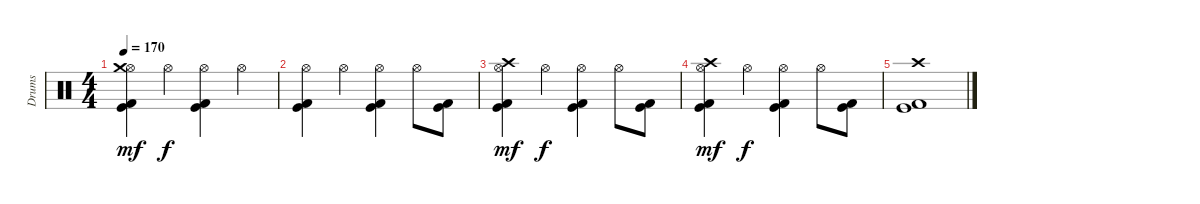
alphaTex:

\track ("Drums" "Drums") {instrument percussion}
\staff {score}
\articulation defaults
\ts (4 4)
\tempo 170
\clef neutral
\ks c
("Hi-Hat (open)" "Crash medium (hit)" "Kick (hit) 2" "Kick (hit)").4{dy mf} "Hi-Hat (open)".4{dy f} ("Hi-Hat (open)" "Kick (hit) 2" "Kick (hit)").4 "Hi-Hat (open)".4 |
("Hi-Hat (open)" "Kick (hit) 2" "Kick (hit)").4 "Hi-Hat (open)".4 ("Hi-Hat (open)" "Kick (hit) 2" "Kick (hit)").4 "Hi-Hat (open)".8 ("Kick (hit) 2" "Kick (hit)").8 |
("Hi-Hat (open)" "Crash high (hit)" "Kick (hit) 2" "Kick (hit)").4{dy mf} "Hi-Hat (open)".4{dy f} ("Hi-Hat (open)" "Kick (hit) 2" "Kick (hit)").4 "Hi-Hat (open)".8 ("Kick (hit) 2" "Kick (hit)").8 |
("Hi-Hat (open)" "Crash high (hit)" "Kick (hit) 2" "Kick (hit)").4{dy mf} "Hi-Hat (open)".4{dy f} ("Hi-Hat (open)" "Kick (hit) 2" "Kick (hit)").4 "Hi-Hat (open)".8 ("Kick (hit) 2" "Kick (hit)").8 |
("Crash high (hit)" "Kick (hit) 2" "Kick (hit)").1
